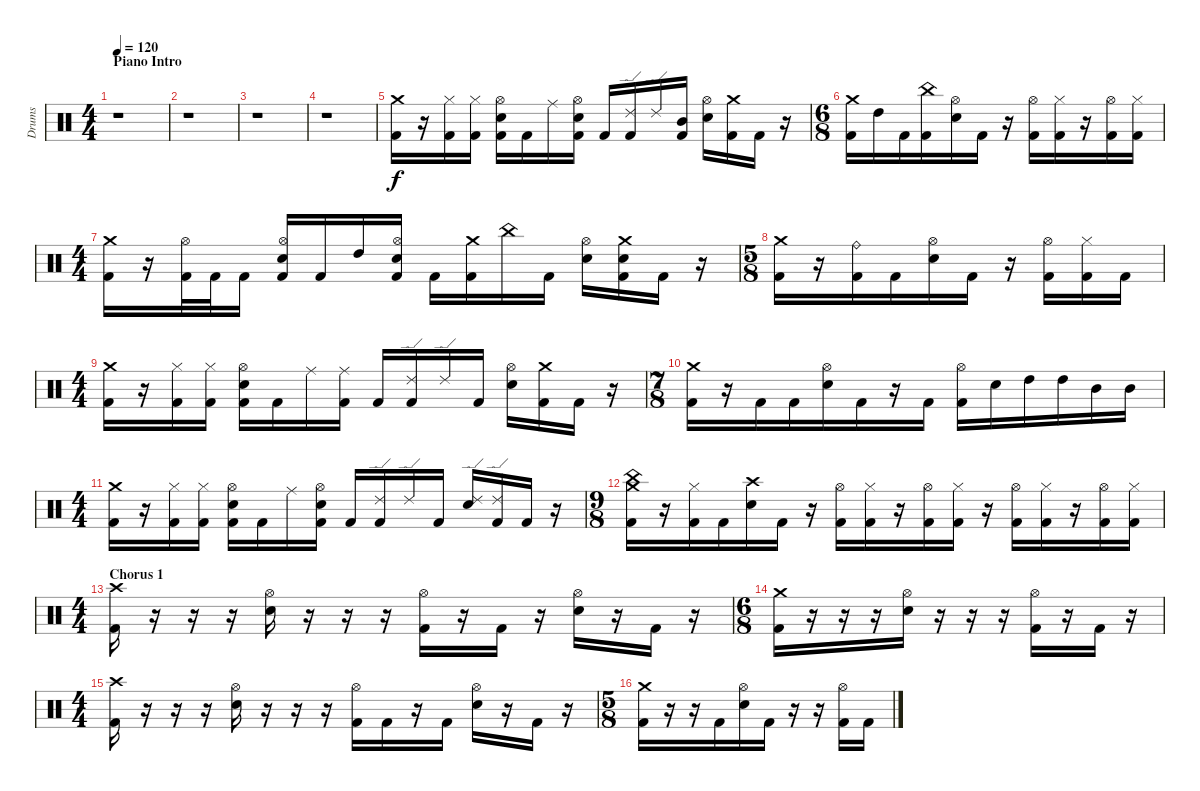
\track ("Drums" "Drums") {instrument percussion}
\staff {score}
\articulation defaults
\ts (4 4)
\section ("" "Piano Intro")
\tempo 120
\clef neutral
\ks c
r.1{dy f} |
r.1 |
r.1 |
r.1 |
("Crash medium (hit)" "Kick (hit) 2").16 r.16 ("Hi-Hat (closed)" "Kick (hit) 2").16 ("Hi-Hat (closed)" "Kick (hit) 2").16 ("Hi-Hat (open)" "Electric Snare (hit)" "Kick (hit) 2").16 "Kick (hit) 2".16 "Ride (middle)".16 ("Hi-Hat (open)" "Electric Snare (hit)" "Kick (hit) 2").16 "Kick (hit) 2".16 ("Ride (edge) 2" "Kick (hit) 2").16 "Ride (edge) 2".16 ("Mid Tom (hit)" "Kick (hit) 2").16 ("Hi-Hat (open)" "Electric Snare (hit)").16 ("Crash medium (hit)" "Kick (hit) 2").16 "Kick (hit) 2".16 r.16 |
\ts (6 8)
("Crash medium (hit)" "Kick (hit) 2").16 "High Tom (hit)".16 "Kick (hit) 2".16 ("China (hit)" "Kick (hit) 2").16 ("Hi-Hat (open)" "Electric Snare (hit)").16 "Kick (hit) 2".16 r.16 ("Hi-Hat (open)" "Kick (hit) 2").16 ("Hi-Hat (closed)" "Kick (hit) 2").16 r.16 ("Hi-Hat (open)" "Kick (hit) 2").16 ("Hi-Hat (closed)" "Kick (hit) 2").16 |
\ts (4 4)
("Crash medium (hit)" "Kick (hit) 2").16 r.16 ("Hi-Hat (open)" "Kick (hit) 2").32 "Kick (hit) 2".32 "Kick (hit) 2".16 ("Hi-Hat (open)" "Electric Snare (hit)" "Kick (hit) 2").16 "Kick (hit) 2".16 "High Tom (hit)".16 ("Hi-Hat (open)" "Electric Snare (hit)" "Kick (hit) 2").16 "Kick (hit) 2".16 ("Crash medium (hit)" "Kick (hit) 2").16 "China (hit)".16 "Kick (hit) 2".16 ("Hi-Hat (open)" "Electric Snare (hit)").16 ("Crash medium (hit)" "Electric Snare (hit)" "Kick (hit) 2").16 "Kick (hit) 2".16 r.16 |
\ts (5 8)
("Crash medium (hit)" "Kick (hit) 2").16 r.16 ("Ride (bell)" "Kick (hit) 2").16 "Kick (hit) 2".16 ("Hi-Hat (open)" "Electric Snare (hit)").16 "Kick (hit) 2".16 r.16 ("Hi-Hat (open)" "Kick (hit) 2").16 ("Hi-Hat (closed)" "Kick (hit) 2").16 "Kick (hit) 2".16 |
\ts (4 4)
("Crash medium (hit)" "Kick (hit) 2").16 r.16 ("Hi-Hat (closed)" "Kick (hit) 2").16 ("Hi-Hat (closed)" "Kick (hit) 2").16 ("Hi-Hat (open)" "Electric Snare (hit)" "Kick (hit) 2").16 "Kick (hit) 2".16 "Ride (middle)".16 ("Ride (middle)" "Kick (hit) 2").16 "Kick (hit) 2".16 ("Ride (edge) 2" "Kick (hit) 2").16 "Ride (edge) 2".16 "Kick (hit) 2".16 ("Hi-Hat (open)" "Electric Snare (hit)").16 ("Crash medium (hit)" "Kick (hit) 2").16 "Kick (hit) 2".16 r.16 |
\ts (7 8)
("Crash medium (hit)" "Kick (hit) 2").16 r.16 "Kick (hit) 2".16 "Kick (hit) 2".16 ("Hi-Hat (open)" "Electric Snare (hit)").16 "Kick (hit) 2".16 r.16 "Kick (hit) 2".16 ("Hi-Hat (open)" "Kick (hit) 2").16 "Electric Snare (hit)".16 "High Tom (hit)".16 "High Tom (hit)".16 "Mid Tom (hit)".16 "Mid Tom (hit)".16 |
\ts (4 4)
("Crash medium (hit)" "Kick (hit) 2").16 r.16 ("Hi-Hat (closed)" "Kick (hit) 2").16 ("Hi-Hat (closed)" "Kick (hit) 2").16 ("Hi-Hat (open)" "Electric Snare (hit)" "Kick (hit) 2").16 "Kick (hit) 2".16 "Ride (middle)".16 ("Hi-Hat (open)" "Electric Snare (hit)" "Kick (hit) 2").16 "Kick (hit) 2".16 ("Ride (edge) 2" "Kick (hit) 2").16 "Ride (edge) 2".16 "Kick (hit) 2".16 ("Ride (edge) 2" "Electric Snare (hit)").16 ("Ride (edge) 2" "Kick (hit) 2").16 "Kick (hit) 2".16 r.16 |
\ts (9 8)
("China (hit)" "Crash medium (hit)" "Kick (hit) 2").16 r.16 ("Hi-Hat (closed)" "Kick (hit) 2").16 "Kick (hit) 2".16 ("Crash high (hit)" "Electric Snare (hit)").16 "Kick (hit) 2".16 r.16 ("Hi-Hat (open)" "Kick (hit) 2").16 ("Hi-Hat (closed)" "Kick (hit) 2").16 r.16 ("Hi-Hat (open)" "Kick (hit) 2").16 ("Hi-Hat (closed)" "Kick (hit) 2").16 r.16 ("Hi-Hat (open)" "Kick (hit) 2").16 ("Hi-Hat (closed)" "Kick (hit) 2").16 r.16 ("Hi-Hat (open)" "Kick (hit) 2").16 ("Hi-Hat (closed)" "Kick (hit) 2").16 |
\ts (4 4)
\section ("" "Chorus 1")
("Crash high (hit)" "Kick (hit) 2").16 r.16 r.16 r.16 ("Hi-Hat (open)" "Electric Snare (hit)").16 r.16 r.16 r.16 ("Hi-Hat (open)" "Kick (hit) 2").16 r.16 "Kick (hit) 2".16 r.16 ("Hi-Hat (open)" "Electric Snare (hit)").16 r.16 "Kick (hit) 2".16 r.16 |
\ts (6 8)
("Crash medium (hit)" "Kick (hit) 2").16 r.16 r.16 r.16 ("Hi-Hat (open)" "Electric Snare (hit)").16 r.16 r.16 r.16 ("Hi-Hat (open)" "Kick (hit) 2").16 r.16 "Kick (hit) 2".16 r.16 |
\ts (4 4)
("Crash high (hit)" "Kick (hit) 2").16 r.16 r.16 r.16 ("Hi-Hat (open)" "Electric Snare (hit)").16 r.16 r.16 r.16 ("Hi-Hat (open)" "Kick (hit) 2").16 "Kick (hit) 2".16 r.16 "Kick (hit) 2".16 ("Hi-Hat (open)" "Electric Snare (hit)").16 r.16 "Kick (hit) 2".16 r.16 |
\ts (5 8)
("Crash medium (hit)" "Kick (hit) 2").16 r.16 r.16 "Kick (hit) 2".16 ("Hi-Hat (open)" "Electric Snare (hit)").16 "Kick (hit) 2".16 r.16 r.16 ("Hi-Hat (open)" "Kick (hit) 2").16 "Kick (hit) 2".16
